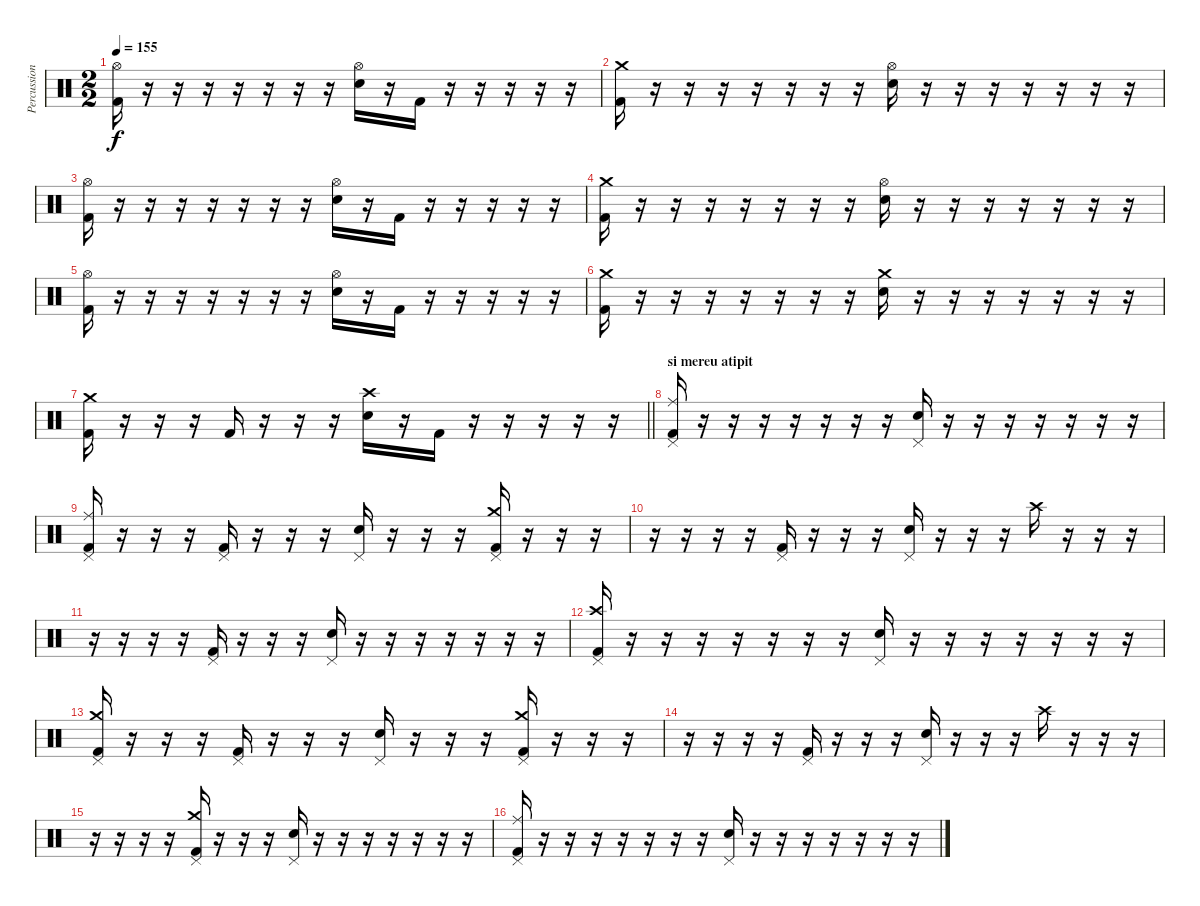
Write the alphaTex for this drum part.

\track ("Percussion" "Percussion") {instrument percussion}
\staff {score}
\articulation defaults
\ts (2 2)
\tempo 155
\clef neutral
\ks c
("Hi-Hat (open)" "Kick (hit) 2").16{dy f} r.16 r.16 r.16 r.16 r.16 r.16 r.16 ("Hi-Hat (open)" "Snare (hit) 2").16 r.16 "Kick (hit) 2".16 r.16 r.16 r.16 r.16 r.16 |
("Crash medium (hit)" "Kick (hit) 2").16 r.16 r.16 r.16 r.16 r.16 r.16 r.16 ("Hi-Hat (open)" "Snare (hit) 2").16 r.16 r.16 r.16 r.16 r.16 r.16 r.16 |
("Hi-Hat (open)" "Kick (hit) 2").16 r.16 r.16 r.16 r.16 r.16 r.16 r.16 ("Hi-Hat (open)" "Snare (hit) 2").16 r.16 "Kick (hit) 2".16 r.16 r.16 r.16 r.16 r.16 |
("Crash medium (hit)" "Kick (hit) 2").16 r.16 r.16 r.16 r.16 r.16 r.16 r.16 ("Hi-Hat (open)" "Snare (hit) 2").16 r.16 r.16 r.16 r.16 r.16 r.16 r.16 |
("Hi-Hat (open)" "Kick (hit) 2").16 r.16 r.16 r.16 r.16 r.16 r.16 r.16 ("Hi-Hat (open)" "Snare (hit) 2").16 r.16 "Kick (hit) 2".16 r.16 r.16 r.16 r.16 r.16 |
("Crash medium (hit)" "Kick (hit) 2").16 r.16 r.16 r.16 r.16 r.16 r.16 r.16 ("Crash medium (hit)" "Snare (hit) 2").16 r.16 r.16 r.16 r.16 r.16 r.16 r.16 |
\barLineRight lightlight
("Crash medium (hit)" "Kick (hit) 2").16 r.16 r.16 r.16 "Kick (hit) 2".16 r.16 r.16 r.16 ("Crash high (hit)" "Snare (hit) 2").16 r.16 "Kick (hit) 2".16 r.16 r.16 r.16 r.16 r.16 |
\section ("" "si mereu atipit")
("Ride (middle)" "Pedal Hi-Hat (hit)" "Kick (hit) 2").16 r.16 r.16 r.16 r.16 r.16 r.16 r.16 ("Pedal Hi-Hat (hit)" "Snare (hit) 2").16 r.16 r.16 r.16 r.16 r.16 r.16 r.16 |
("Ride (middle)" "Pedal Hi-Hat (hit)" "Kick (hit) 2").16 r.16 r.16 r.16 ("Pedal Hi-Hat (hit)" "Kick (hit) 2").16 r.16 r.16 r.16 ("Pedal Hi-Hat (hit)" "Snare (hit) 2").16 r.16 r.16 r.16 ("Crash medium (hit)" "Pedal Hi-Hat (hit)" "Kick (hit) 2").16 r.16 r.16 r.16 |
r.16 r.16 r.16 r.16 ("Pedal Hi-Hat (hit)" "Kick (hit) 2").16 r.16 r.16 r.16 ("Pedal Hi-Hat (hit)" "Snare (hit) 2").16 r.16 r.16 r.16 "Crash high (hit)".16 r.16 r.16 r.16 |
r.16 r.16 r.16 r.16 ("Pedal Hi-Hat (hit)" "Kick (hit) 2").16 r.16 r.16 r.16 ("Pedal Hi-Hat (hit)" "Snare (hit) 2").16 r.16 r.16 r.16 r.16 r.16 r.16 r.16 |
("Crash high (hit)" "Pedal Hi-Hat (hit)" "Kick (hit) 2").16 r.16 r.16 r.16 r.16 r.16 r.16 r.16 ("Pedal Hi-Hat (hit)" "Snare (hit) 2").16 r.16 r.16 r.16 r.16 r.16 r.16 r.16 |
("Crash medium (hit)" "Pedal Hi-Hat (hit)" "Kick (hit) 2").16 r.16 r.16 r.16 ("Pedal Hi-Hat (hit)" "Kick (hit) 2").16 r.16 r.16 r.16 ("Pedal Hi-Hat (hit)" "Snare (hit) 2").16 r.16 r.16 r.16 ("Crash medium (hit)" "Pedal Hi-Hat (hit)" "Kick (hit) 2").16 r.16 r.16 r.16 |
r.16 r.16 r.16 r.16 ("Pedal Hi-Hat (hit)" "Kick (hit) 2").16 r.16 r.16 r.16 ("Pedal Hi-Hat (hit)" "Snare (hit) 2").16 r.16 r.16 r.16 "Crash high (hit)".16 r.16 r.16 r.16 |
r.16 r.16 r.16 r.16 ("Crash medium (hit)" "Pedal Hi-Hat (hit)" "Kick (hit) 2").16 r.16 r.16 r.16 ("Pedal Hi-Hat (hit)" "Snare (hit) 2").16 r.16 r.16 r.16 r.16 r.16 r.16 r.16 |
("Ride (middle)" "Pedal Hi-Hat (hit)" "Kick (hit) 2").16 r.16 r.16 r.16 r.16 r.16 r.16 r.16 ("Pedal Hi-Hat (hit)" "Snare (hit) 2").16 r.16 r.16 r.16 r.16 r.16 r.16 r.16
